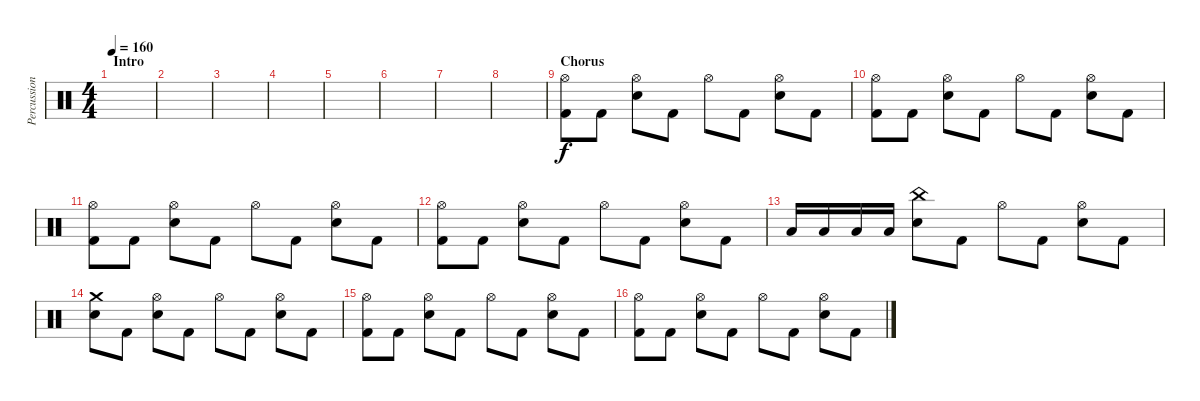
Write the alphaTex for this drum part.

\track ("Percussion" "Percussion") {instrument percussion}
\staff {score}
\articulation defaults
\ts (4 4)
\section ("" "Intro")
\tempo 160
\clef neutral
\ks c
|
|
|
|
|
|
|
|
\section ("" "Chorus")
("Hi-Hat (open)" "Kick (hit) 2").8 "Kick (hit) 2".8 ("Hi-Hat (open)" "Snare (hit) 2").8 "Kick (hit) 2".8 "Hi-Hat (open)".8 "Kick (hit) 2".8 ("Hi-Hat (open)" "Snare (hit) 2").8 "Kick (hit) 2".8 |
("Hi-Hat (open)" "Kick (hit) 2").8 "Kick (hit) 2".8 ("Hi-Hat (open)" "Snare (hit) 2").8 "Kick (hit) 2".8 "Hi-Hat (open)".8 "Kick (hit) 2".8 ("Hi-Hat (open)" "Snare (hit) 2").8 "Kick (hit) 2".8 |
("Hi-Hat (open)" "Kick (hit) 2").8 "Kick (hit) 2".8 ("Hi-Hat (open)" "Snare (hit) 2").8 "Kick (hit) 2".8 "Hi-Hat (open)".8 "Kick (hit) 2".8 ("Hi-Hat (open)" "Snare (hit) 2").8 "Kick (hit) 2".8 |
("Hi-Hat (open)" "Kick (hit) 2").8 "Kick (hit) 2".8 ("Hi-Hat (open)" "Snare (hit) 2").8 "Kick (hit) 2".8 "Hi-Hat (open)".8 "Kick (hit) 2".8 ("Hi-Hat (open)" "Snare (hit) 2").8 "Kick (hit) 2".8 |
"Low Tom (hit)".16 "Low Tom (hit)".16 "Low Floor Tom (hit)".16 "Low Floor Tom (hit)".16 ("China (hit)" "Snare (hit) 2").8 "Kick (hit) 2".8 "Hi-Hat (open)".8 "Kick (hit) 2".8 ("Hi-Hat (open)" "Snare (hit) 2").8 "Kick (hit) 2".8 |
("Crash medium (hit)" "Snare (hit) 2").8 "Kick (hit) 2".8 ("Hi-Hat (open)" "Snare (hit) 2").8 "Kick (hit) 2".8 "Hi-Hat (open)".8 "Kick (hit) 2".8 ("Hi-Hat (open)" "Snare (hit) 2").8 "Kick (hit) 2".8 |
("Hi-Hat (open)" "Kick (hit) 2").8 "Kick (hit) 2".8 ("Hi-Hat (open)" "Snare (hit) 2").8 "Kick (hit) 2".8 "Hi-Hat (open)".8 "Kick (hit) 2".8 ("Hi-Hat (open)" "Snare (hit) 2").8 "Kick (hit) 2".8 |
("Hi-Hat (open)" "Kick (hit) 2").8 "Kick (hit) 2".8 ("Hi-Hat (open)" "Snare (hit) 2").8 "Kick (hit) 2".8 "Hi-Hat (open)".8 "Kick (hit) 2".8 ("Hi-Hat (open)" "Snare (hit) 2").8 "Kick (hit) 2".8
